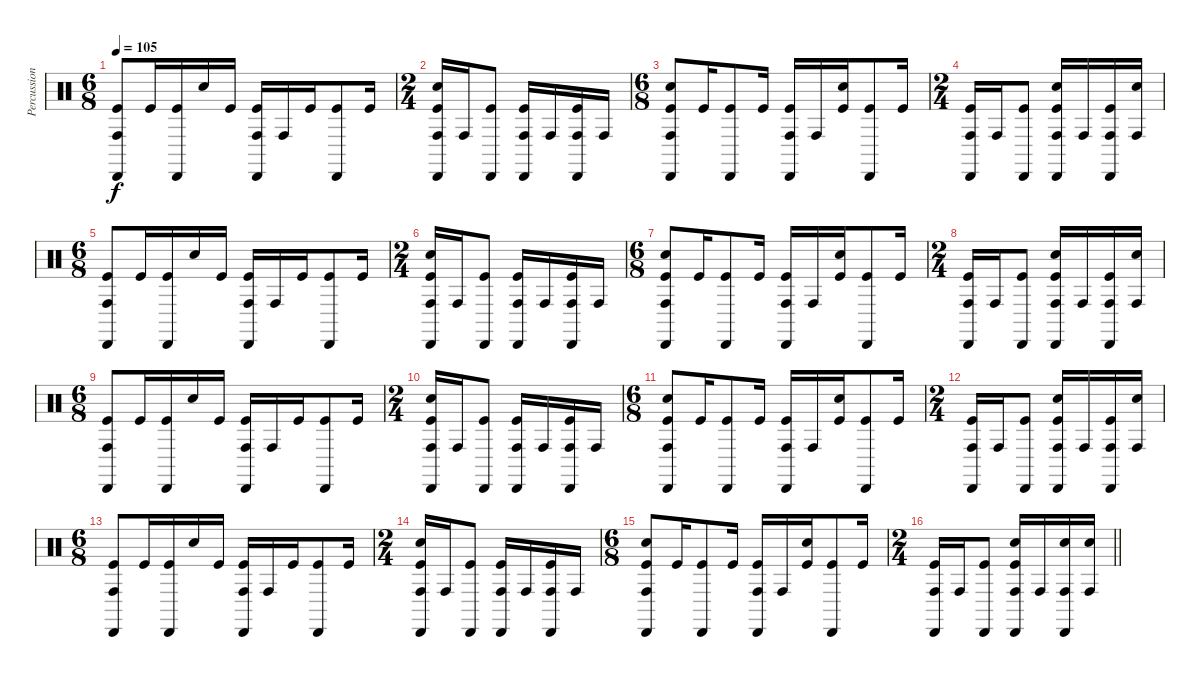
\track ("Percussion" "Percussion") {instrument percussion}
\staff {score}
\articulation defaults
\ts (6 8)
\tempo 105
\clef neutral
\ks c
("Cabasa (hit)" "Conga high (hit)" "Kick (hit)").8{dy f} "Kick (hit)".16 ("Cabasa (hit)" "Kick (hit)").16 "Snare (hit) 2".16 "Kick (hit)".16 ("Cabasa (hit)" "Conga high (hit)" "Kick (hit)").16 "Conga high (hit)".16 "Kick (hit)".16 ("Cabasa (hit)" "Kick (hit)").8 "Kick (hit)".16 |
\ts (2 4)
("Cabasa (hit)" "Snare (hit) 2" "Conga high (hit)" "Kick (hit)").16 "Conga high (hit)".16 ("Cabasa (hit)" "Kick (hit)").8 ("Cabasa (hit)" "Conga high (hit)" "Kick (hit)").16 "Conga high (hit)".16 ("Cabasa (hit)" "Conga high (hit)" "Kick (hit)").16 "Conga high (hit)".16 |
\ts (6 8)
("Cabasa (hit)" "Snare (hit) 2" "Conga high (hit)" "Kick (hit)").8 "Kick (hit)".16 ("Cabasa (hit)" "Kick (hit)").8 "Kick (hit)".16 ("Cabasa (hit)" "Conga high (hit)" "Kick (hit)").16 "Conga high (hit)".16 ("Snare (hit) 2" "Kick (hit)").16 ("Cabasa (hit)" "Kick (hit)").8 "Kick (hit)".16 |
\ts (2 4)
("Cabasa (hit)" "Conga high (hit)" "Kick (hit)").16 "Conga high (hit)".16 ("Cabasa (hit)" "Kick (hit)").8 ("Cabasa (hit)" "Snare (hit) 2" "Conga high (hit)" "Kick (hit)").16 "Conga high (hit)".16 ("Cabasa (hit)" "Conga high (hit)" "Kick (hit)").16 ("Snare (hit) 2" "Conga high (hit)").16 |
\ts (6 8)
("Cabasa (hit)" "Conga high (hit)" "Kick (hit)").8 "Kick (hit)".16 ("Cabasa (hit)" "Kick (hit)").16 "Snare (hit) 2".16 "Kick (hit)".16 ("Cabasa (hit)" "Conga high (hit)" "Kick (hit)").16 "Conga high (hit)".16 "Kick (hit)".16 ("Cabasa (hit)" "Kick (hit)").8 "Kick (hit)".16 |
\ts (2 4)
("Cabasa (hit)" "Snare (hit) 2" "Conga high (hit)" "Kick (hit)").16 "Conga high (hit)".16 ("Cabasa (hit)" "Kick (hit)").8 ("Cabasa (hit)" "Conga high (hit)" "Kick (hit)").16 "Conga high (hit)".16 ("Cabasa (hit)" "Conga high (hit)" "Kick (hit)").16 "Conga high (hit)".16 |
\ts (6 8)
("Cabasa (hit)" "Snare (hit) 2" "Conga high (hit)" "Kick (hit)").8 "Kick (hit)".16 ("Cabasa (hit)" "Kick (hit)").8 "Kick (hit)".16 ("Cabasa (hit)" "Conga high (hit)" "Kick (hit)").16 "Conga high (hit)".16 ("Snare (hit) 2" "Kick (hit)").16 ("Cabasa (hit)" "Kick (hit)").8 "Kick (hit)".16 |
\ts (2 4)
("Cabasa (hit)" "Conga high (hit)" "Kick (hit)").16 "Conga high (hit)".16 ("Cabasa (hit)" "Kick (hit)").8 ("Cabasa (hit)" "Snare (hit) 2" "Conga high (hit)" "Kick (hit)").16 "Conga high (hit)".16 ("Cabasa (hit)" "Conga high (hit)" "Kick (hit)").16 ("Snare (hit) 2" "Conga high (hit)").16 |
\ts (6 8)
("Cabasa (hit)" "Conga high (hit)" "Kick (hit)").8 "Kick (hit)".16 ("Cabasa (hit)" "Kick (hit)").16 "Snare (hit) 2".16 "Kick (hit)".16 ("Cabasa (hit)" "Conga high (hit)" "Kick (hit)").16 "Conga high (hit)".16 "Kick (hit)".16 ("Cabasa (hit)" "Kick (hit)").8 "Kick (hit)".16 |
\ts (2 4)
("Cabasa (hit)" "Snare (hit) 2" "Conga high (hit)" "Kick (hit)").16 "Conga high (hit)".16 ("Cabasa (hit)" "Kick (hit)").8 ("Cabasa (hit)" "Conga high (hit)" "Kick (hit)").16 "Conga high (hit)".16 ("Cabasa (hit)" "Conga high (hit)" "Kick (hit)").16 "Conga high (hit)".16 |
\ts (6 8)
("Cabasa (hit)" "Snare (hit) 2" "Conga high (hit)" "Kick (hit)").8 "Kick (hit)".16 ("Cabasa (hit)" "Kick (hit)").8 "Kick (hit)".16 ("Cabasa (hit)" "Conga high (hit)" "Kick (hit)").16 "Conga high (hit)".16 ("Snare (hit) 2" "Kick (hit)").16 ("Cabasa (hit)" "Kick (hit)").8 "Kick (hit)".16 |
\ts (2 4)
("Cabasa (hit)" "Conga high (hit)" "Kick (hit)").16 "Conga high (hit)".16 ("Cabasa (hit)" "Kick (hit)").8 ("Cabasa (hit)" "Snare (hit) 2" "Conga high (hit)" "Kick (hit)").16 "Conga high (hit)".16 ("Cabasa (hit)" "Conga high (hit)" "Kick (hit)").16 ("Snare (hit) 2" "Conga high (hit)").16 |
\ts (6 8)
("Cabasa (hit)" "Conga high (hit)" "Kick (hit)").8 "Kick (hit)".16 ("Cabasa (hit)" "Kick (hit)").16 "Snare (hit) 2".16 "Kick (hit)".16 ("Cabasa (hit)" "Conga high (hit)" "Kick (hit)").16 "Conga high (hit)".16 "Kick (hit)".16 ("Cabasa (hit)" "Kick (hit)").8 "Kick (hit)".16 |
\ts (2 4)
("Cabasa (hit)" "Snare (hit) 2" "Conga high (hit)" "Kick (hit)").16 "Conga high (hit)".16 ("Cabasa (hit)" "Kick (hit)").8 ("Cabasa (hit)" "Conga high (hit)" "Kick (hit)").16 "Conga high (hit)".16 ("Cabasa (hit)" "Conga high (hit)" "Kick (hit)").16 "Conga high (hit)".16 |
\ts (6 8)
("Cabasa (hit)" "Snare (hit) 2" "Conga high (hit)" "Kick (hit)").8 "Kick (hit)".16 ("Cabasa (hit)" "Kick (hit)").8 "Kick (hit)".16 ("Cabasa (hit)" "Conga high (hit)" "Kick (hit)").16 "Conga high (hit)".16 ("Snare (hit) 2" "Kick (hit)").16 ("Cabasa (hit)" "Kick (hit)").8 "Kick (hit)".16 |
\ts (2 4)
\barLineRight lightlight
("Cabasa (hit)" "Conga high (hit)" "Kick (hit)").16 "Conga high (hit)".16 ("Cabasa (hit)" "Kick (hit)").8 ("Cabasa (hit)" "Snare (hit) 2" "Conga high (hit)" "Kick (hit)").16 "Conga high (hit)".16 ("Cabasa (hit)" "Snare (hit) 2" "Conga high (hit)").16 ("Snare (hit) 2" "Conga high (hit)").16
